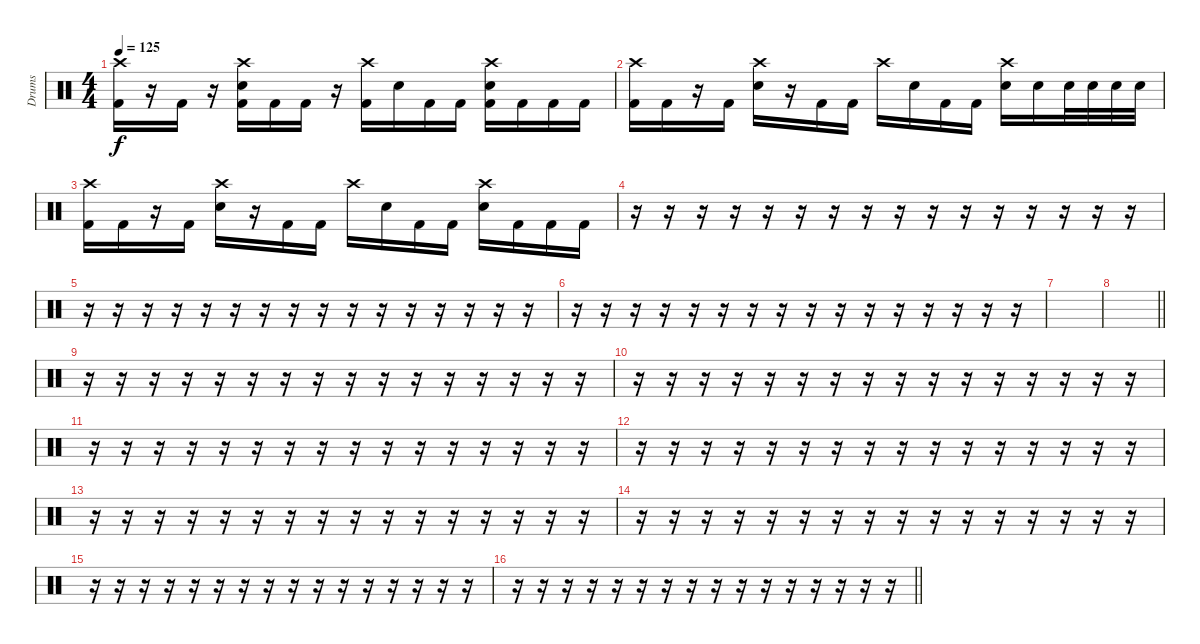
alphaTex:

\track ("Drums" "Drums") {instrument percussion}
\staff
\articulation defaults
\ts (4 4)
\tempo 125
\clef neutral
\ks c
("Crash high (hit)" "Kick (hit) 2").16{dy f} r.16 "Kick (hit) 2".16 r.16 ("Crash high (hit)" "Electric Snare (hit)" "Kick (hit) 2").16 "Kick (hit) 2".16 "Kick (hit) 2".16 r.16 ("Crash high (hit)" "Kick (hit) 2").16 "Electric Snare (hit)".16 "Kick (hit) 2".16 "Kick (hit) 2".16 ("Crash high (hit)" "Electric Snare (hit)" "Kick (hit) 2").16 "Kick (hit) 2".16 "Kick (hit) 2".16 "Kick (hit) 2".16 |
("Crash high (hit)" "Kick (hit) 2").16 "Kick (hit) 2".16 r.16 "Kick (hit) 2".16 ("Crash high (hit)" "Electric Snare (hit)").16 r.16 "Kick (hit) 2".16 "Kick (hit) 2".16 "Crash high (hit)".16 "Electric Snare (hit)".16 "Kick (hit) 2".16 "Kick (hit) 2".16 ("Crash high (hit)" "Electric Snare (hit)").16 "Electric Snare (hit)".16 "Electric Snare (hit)".32 "Electric Snare (hit)".32 "Electric Snare (hit)".32 "Electric Snare (hit)".32 |
("Crash high (hit)" "Kick (hit) 2").16 "Kick (hit) 2".16 r.16 "Kick (hit) 2".16 ("Crash high (hit)" "Electric Snare (hit)").16 r.16 "Kick (hit) 2".16 "Kick (hit) 2".16 "Crash high (hit)".16 "Electric Snare (hit)".16 "Kick (hit) 2".16 "Kick (hit) 2".16 ("Crash high (hit)" "Electric Snare (hit)").16 "Kick (hit) 2".16 "Kick (hit) 2".16 "Kick (hit) 2".16 |
r.16 r.16 r.16 r.16 r.16 r.16 r.16 r.16 r.16 r.16 r.16 r.16 r.16 r.16 r.16 r.16 |
r.16 r.16 r.16 r.16 r.16 r.16 r.16 r.16 r.16 r.16 r.16 r.16 r.16 r.16 r.16 r.16 |
r.16 r.16 r.16 r.16 r.16 r.16 r.16 r.16 r.16 r.16 r.16 r.16 r.16 r.16 r.16 r.16 |
|
\barLineRight lightlight
|
r.16 r.16 r.16 r.16 r.16 r.16 r.16 r.16 r.16 r.16 r.16 r.16 r.16 r.16 r.16 r.16 |
r.16 r.16 r.16 r.16 r.16 r.16 r.16 r.16 r.16 r.16 r.16 r.16 r.16 r.16 r.16 r.16 |
r.16 r.16 r.16 r.16 r.16 r.16 r.16 r.16 r.16 r.16 r.16 r.16 r.16 r.16 r.16 r.16 |
r.16 r.16 r.16 r.16 r.16 r.16 r.16 r.16 r.16 r.16 r.16 r.16 r.16 r.16 r.16 r.16 |
r.16 r.16 r.16 r.16 r.16 r.16 r.16 r.16 r.16 r.16 r.16 r.16 r.16 r.16 r.16 r.16 |
r.16 r.16 r.16 r.16 r.16 r.16 r.16 r.16 r.16 r.16 r.16 r.16 r.16 r.16 r.16 r.16 |
r.16 r.16 r.16 r.16 r.16 r.16 r.16 r.16 r.16 r.16 r.16 r.16 r.16 r.16 r.16 r.16 |
\barLineRight lightlight
r.16 r.16 r.16 r.16 r.16 r.16 r.16 r.16 r.16 r.16 r.16 r.16 r.16 r.16 r.16 r.16
